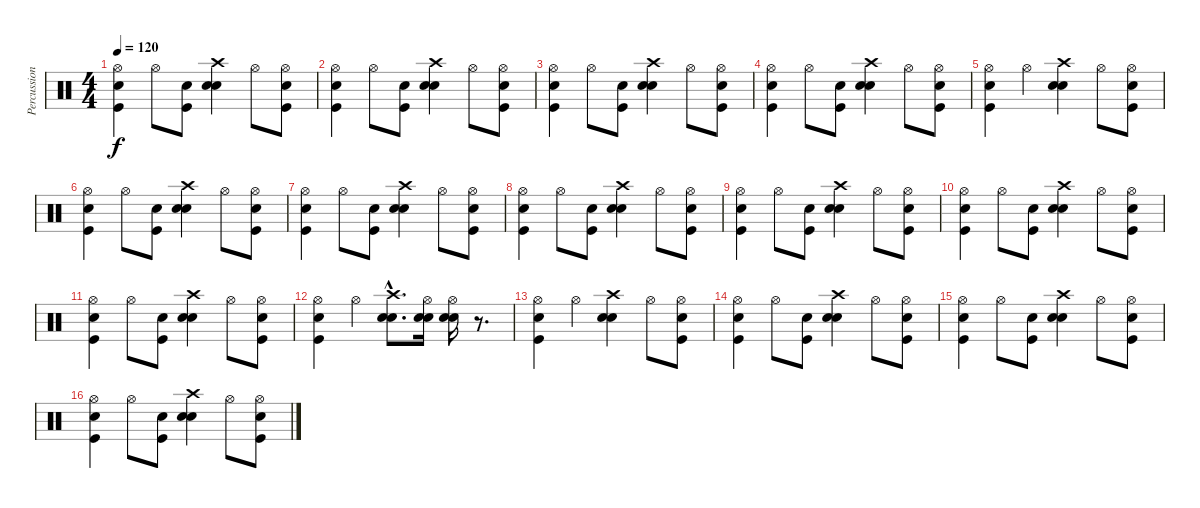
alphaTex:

\track ("Percussions" "Percussion") {instrument percussion}
\staff {score}
\articulation defaults
\ts (4 4)
\tempo 120
\clef neutral
\ks c
("Hi-Hat (open)" "Snare (hit) 2" "Kick (hit)").4{dy f} "Hi-Hat (open)".8 ("Snare (hit) 2" "Kick (hit)").8 ("Crash high (hit)" "Snare (hit) 2" "Electric Snare (hit)").4 "Hi-Hat (open)".8 ("Hi-Hat (open)" "Snare (hit) 2" "Kick (hit)").8 |
("Hi-Hat (open)" "Snare (hit) 2" "Kick (hit)").4 "Hi-Hat (open)".8 ("Snare (hit) 2" "Kick (hit)").8 ("Crash high (hit)" "Snare (hit) 2" "Electric Snare (hit)").4 "Hi-Hat (open)".8 ("Hi-Hat (open)" "Snare (hit) 2" "Kick (hit)").8 |
("Hi-Hat (open)" "Snare (hit) 2" "Kick (hit)").4 "Hi-Hat (open)".8 ("Snare (hit) 2" "Kick (hit)").8 ("Crash high (hit)" "Snare (hit) 2" "Electric Snare (hit)").4 "Hi-Hat (open)".8 ("Hi-Hat (open)" "Snare (hit) 2" "Kick (hit)").8 |
("Hi-Hat (open)" "Snare (hit) 2" "Kick (hit)").4 "Hi-Hat (open)".8 ("Snare (hit) 2" "Kick (hit)").8 ("Crash high (hit)" "Snare (hit) 2" "Electric Snare (hit)").4 "Hi-Hat (open)".8 ("Hi-Hat (open)" "Snare (hit) 2" "Kick (hit)").8 |
("Hi-Hat (open)" "Snare (hit) 2" "Kick (hit)").4 "Hi-Hat (open)".4 ("Crash high (hit)" "Snare (hit) 2" "Electric Snare (hit)").4 "Hi-Hat (open)".8 ("Hi-Hat (open)" "Snare (hit) 2" "Kick (hit)").8 |
("Hi-Hat (open)" "Snare (hit) 2" "Kick (hit)").4 "Hi-Hat (open)".8 ("Snare (hit) 2" "Kick (hit)").8 ("Crash high (hit)" "Snare (hit) 2" "Electric Snare (hit)").4 "Hi-Hat (open)".8 ("Hi-Hat (open)" "Snare (hit) 2" "Kick (hit)").8 |
("Hi-Hat (open)" "Snare (hit) 2" "Kick (hit)").4 "Hi-Hat (open)".8 ("Snare (hit) 2" "Kick (hit)").8 ("Crash high (hit)" "Snare (hit) 2" "Electric Snare (hit)").4 "Hi-Hat (open)".8 ("Hi-Hat (open)" "Snare (hit) 2" "Kick (hit)").8 |
("Hi-Hat (open)" "Snare (hit) 2" "Kick (hit)").4 "Hi-Hat (open)".8 ("Snare (hit) 2" "Kick (hit)").8 ("Crash high (hit)" "Snare (hit) 2" "Electric Snare (hit)").4 "Hi-Hat (open)".8 ("Hi-Hat (open)" "Snare (hit) 2" "Kick (hit)").8 |
("Hi-Hat (open)" "Snare (hit) 2" "Kick (hit)").4 "Hi-Hat (open)".8 ("Snare (hit) 2" "Kick (hit)").8 ("Crash high (hit)" "Snare (hit) 2" "Electric Snare (hit)").4 "Hi-Hat (open)".8 ("Hi-Hat (open)" "Snare (hit) 2" "Kick (hit)").8 |
("Hi-Hat (open)" "Snare (hit) 2" "Kick (hit)").4 "Hi-Hat (open)".8 ("Snare (hit) 2" "Kick (hit)").8 ("Crash high (hit)" "Snare (hit) 2" "Electric Snare (hit)").4 "Hi-Hat (open)".8 ("Hi-Hat (open)" "Snare (hit) 2" "Kick (hit)").8 |
("Hi-Hat (open)" "Snare (hit) 2" "Kick (hit)").4 "Hi-Hat (open)".8 ("Snare (hit) 2" "Kick (hit)").8 ("Crash high (hit)" "Snare (hit) 2" "Electric Snare (hit)").4 "Hi-Hat (open)".8 ("Hi-Hat (open)" "Snare (hit) 2" "Kick (hit)").8 |
("Hi-Hat (open)" "Snare (hit) 2" "Kick (hit)").4 "Hi-Hat (open)".4 ("Crash high (hit)"{hac} "Snare (hit) 2"{hac} "Electric Snare (hit)"{hac}).8{d} ("Hi-Hat (open)" "Snare (hit) 2" "Electric Snare (hit)").16 ("Hi-Hat (open)" "Snare (hit) 2" "Electric Snare (hit)").16 r.8{d} |
("Hi-Hat (open)" "Snare (hit) 2" "Kick (hit)").4 "Hi-Hat (open)".4 ("Crash high (hit)" "Snare (hit) 2" "Electric Snare (hit)").4 "Hi-Hat (open)".8 ("Hi-Hat (open)" "Snare (hit) 2" "Kick (hit)").8 |
("Hi-Hat (open)" "Snare (hit) 2" "Kick (hit)").4 "Hi-Hat (open)".8 ("Snare (hit) 2" "Kick (hit)").8 ("Crash high (hit)" "Snare (hit) 2" "Electric Snare (hit)").4 "Hi-Hat (open)".8 ("Hi-Hat (open)" "Snare (hit) 2" "Kick (hit)").8 |
("Hi-Hat (open)" "Snare (hit) 2" "Kick (hit)").4 "Hi-Hat (open)".8 ("Snare (hit) 2" "Kick (hit)").8 ("Crash high (hit)" "Snare (hit) 2" "Electric Snare (hit)").4 "Hi-Hat (open)".8 ("Hi-Hat (open)" "Snare (hit) 2" "Kick (hit)").8 |
("Hi-Hat (open)" "Snare (hit) 2" "Kick (hit)").4 "Hi-Hat (open)".8 ("Snare (hit) 2" "Kick (hit)").8 ("Crash high (hit)" "Snare (hit) 2" "Electric Snare (hit)").4 "Hi-Hat (open)".8 ("Hi-Hat (open)" "Snare (hit) 2" "Kick (hit)").8
